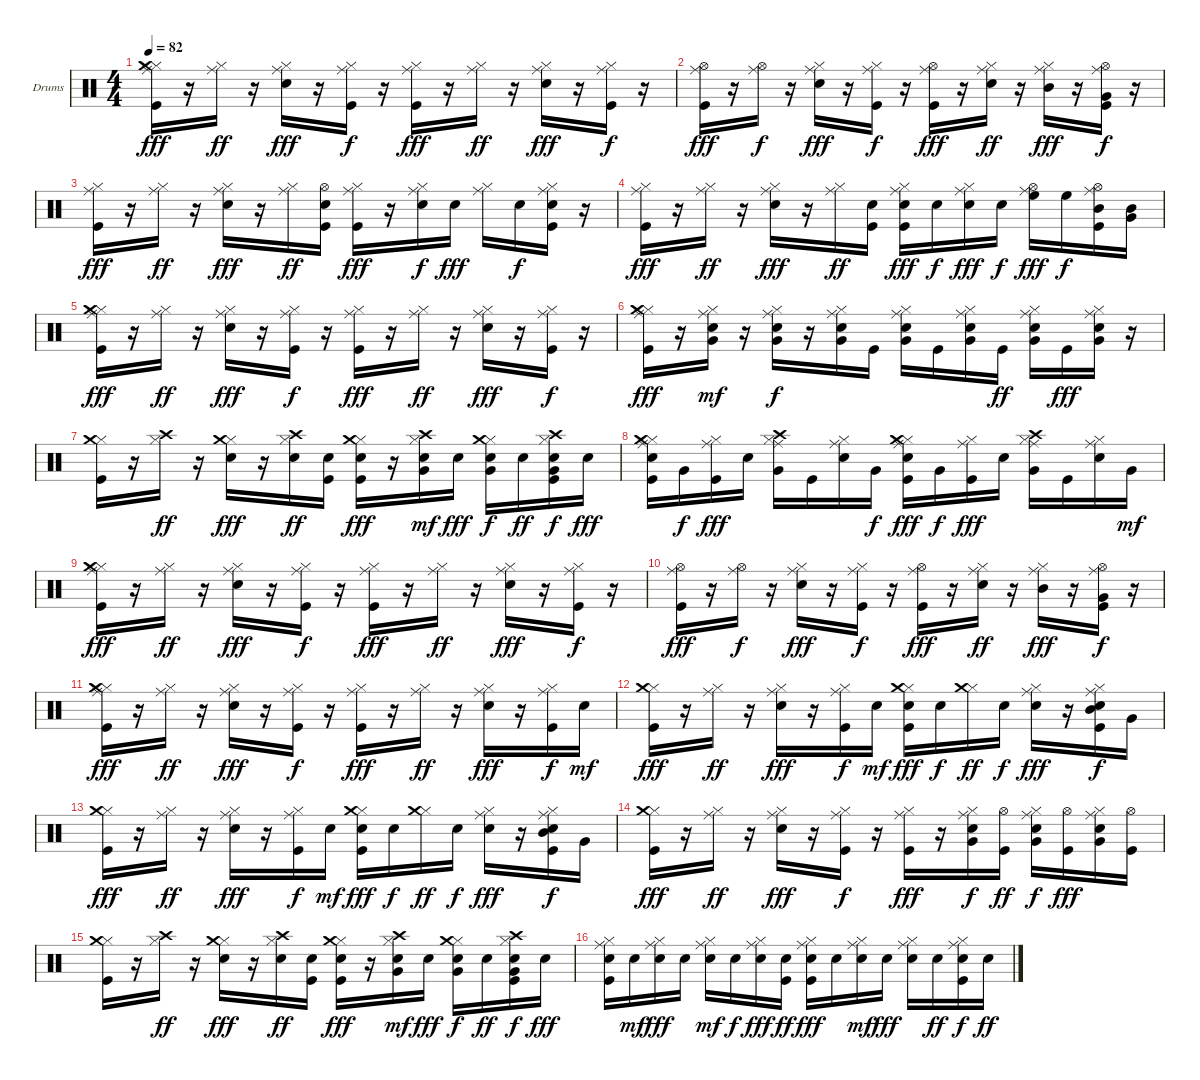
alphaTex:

\bracketExtendMode groupsimilarinstruments
\firstSystemTrackNameOrientation horizontal
\otherSystemsTrackNameOrientation horizontal
\track ("Drumkit" "Drums") {instrument percussion}
\staff {score}
\articulation defaults
\ts (4 4)
\tempo 82
\clef neutral
\ks c
("Kick (hit)" "Hi-Hat (closed)" "Ride (middle)" "Crash medium (hit)").16{dy fff} r.16 ("Hi-Hat (closed)" "Ride (middle)").16{dy ff} r.16 ("Snare (hit) 2" "Hi-Hat (closed)" "Ride (middle)").16{dy fff} r.16 ("Kick (hit)" "Hi-Hat (closed)" "Ride (middle)").16{dy f} r.16 ("Kick (hit)" "Hi-Hat (closed)" "Ride (middle)").16{dy fff} r.16 ("Hi-Hat (closed)" "Ride (middle)").16{dy ff} r.16 ("Snare (hit) 2" "Hi-Hat (closed)" "Ride (middle)").16{dy fff} r.16 ("Kick (hit)" "Hi-Hat (closed)" "Ride (middle)").16{dy f} r.16 |
("Kick (hit)" "Hi-Hat (open)" "Ride (middle)").16{dy fff} r.16 ("Hi-Hat (open)" "Ride (middle)").16{dy f} r.16 ("Snare (hit) 2" "Hi-Hat (closed)" "Ride (middle)").16{dy fff} r.16 ("Kick (hit)" "Hi-Hat (closed)" "Ride (middle)").16{dy f} r.16 ("Kick (hit)" "Hi-Hat (open)" "Ride (middle)").16{dy fff} r.16 ("Snare (hit) 2" "Hi-Hat (closed)" "Ride (middle)").16{dy ff} r.16 ("Hi-Hat (closed)" "Ride (middle)" "Mid Tom (hit)").16{dy fff} r.16 ("Kick (hit)" "Hi-Hat (open)" "Ride (middle)" "Very Low Tom (hit)").16{dy f} r.16 |
("Kick (hit)" "Hi-Hat (closed)" "Ride (middle)").16{dy fff} r.16 ("Hi-Hat (closed)" "Ride (middle)").16{dy ff} r.16 ("Snare (hit) 2" "Hi-Hat (closed)" "Ride (middle)").16{dy fff} r.16 ("Hi-Hat (closed)" "Ride (middle)").16{dy ff} ("Kick (hit)" "Snare (hit) 2" "Hi-Hat (open)").16 ("Kick (hit)" "Hi-Hat (closed)" "Ride (middle)").16{dy fff} r.16 ("Snare (hit) 2" "Hi-Hat (closed)" "Ride (middle)").16{dy f} "Snare (hit) 2".16{dy fff} ("Hi-Hat (closed)" "Ride (middle)").16 "Snare (hit) 2".16{dy f} ("Kick (hit)" "Snare (hit) 2" "Hi-Hat (closed)" "Ride (middle)").16 r.16 |
("Kick (hit)" "Hi-Hat (closed)" "Ride (middle)").16{dy fff} r.16 ("Hi-Hat (closed)" "Ride (middle)").16{dy ff} r.16 ("Snare (hit) 2" "Hi-Hat (closed)" "Ride (middle)").16{dy fff} r.16 ("Hi-Hat (closed)" "Ride (middle)").16{dy ff} ("Kick (hit)" "Snare (hit) 2").16 ("Kick (hit)" "Snare (hit) 2" "Hi-Hat (closed)" "Ride (middle)").16{dy fff} "Snare (hit) 2".16{dy f} ("Snare (hit) 2" "Hi-Hat (closed)" "Ride (middle)").16{dy fff} "Snare (hit) 2".16{dy f} ("Hi-Hat (open)" "Ride (middle)" "High Floor Tom (hit)").16{dy fff} "High Floor Tom (hit)".16{dy f} ("Kick (hit)" "Hi-Hat (open)" "Ride (middle)" "Mid Tom (hit)").16 ("Mid Tom (hit)" "Very Low Tom (hit)").16 |
("Kick (hit)" "Hi-Hat (closed)" "Ride (middle)" "Crash medium (hit)").16{dy fff} r.16 ("Hi-Hat (closed)" "Ride (middle)").16{dy ff} r.16 ("Snare (hit) 2" "Hi-Hat (closed)" "Ride (middle)").16{dy fff} r.16 ("Kick (hit)" "Hi-Hat (closed)" "Ride (middle)").16{dy f} r.16 ("Kick (hit)" "Hi-Hat (closed)" "Ride (middle)").16{dy fff} r.16 ("Hi-Hat (closed)" "Ride (middle)").16{dy ff} r.16 ("Snare (hit) 2" "Hi-Hat (closed)" "Ride (middle)").16{dy fff} r.16 ("Kick (hit)" "Hi-Hat (closed)" "Ride (middle)").16{dy f} r.16 |
("Kick (hit)" "Hi-Hat (closed)" "Ride (middle)" "Crash medium (hit)").16{dy fff} r.16 ("Snare (hit) 2" "Hi-Hat (closed)" "Ride (middle)" "Very Low Tom (hit)").16{dy mf} r.16 ("Snare (hit) 2" "Hi-Hat (closed)" "Ride (middle)" "Very Low Tom (hit)").16{dy f} r.16 ("Snare (hit) 2" "Hi-Hat (closed)" "Ride (middle)" "Very Low Tom (hit)").16 "Kick (hit)".16 ("Snare (hit) 2" "Hi-Hat (closed)" "Ride (middle)" "Very Low Tom (hit)").16 "Kick (hit)".16 ("Snare (hit) 2" "Hi-Hat (closed)" "Ride (middle)" "Very Low Tom (hit)").16 "Kick (hit)".16{dy ff} ("Snare (hit) 2" "Hi-Hat (closed)" "Ride (middle)" "Very Low Tom (hit)").16 "Kick (hit)".16{dy fff} ("Snare (hit) 2" "Hi-Hat (closed)" "Ride (middle)" "Very Low Tom (hit)").16 r.16 |
("Kick (hit)" "Hi-Hat (closed)" "Crash medium (hit)").16 r.16 ("Hi-Hat (closed)" "Crash high (hit)").16{dy ff} r.16 ("Snare (hit) 2" "Hi-Hat (closed)" "Crash medium (hit)").16{dy fff} r.16 ("Hi-Hat (closed)" "Crash high (hit)" "Snare (hit) 2").16{dy ff} ("Kick (hit)" "Snare (hit) 2").16 ("Kick (hit)" "Snare (hit) 2" "Hi-Hat (closed)" "Crash medium (hit)").16{dy fff} r.16 ("Snare (hit) 2" "Hi-Hat (closed)" "Crash high (hit)" "Very Low Tom (hit)").16{dy mf} "Snare (hit) 2".16{dy fff} ("Snare (hit) 2" "Hi-Hat (closed)" "Crash medium (hit)" "Very Low Tom (hit)").16{dy f} "Snare (hit) 2".16{dy ff} ("Kick (hit)" "Snare (hit) 2" "Hi-Hat (closed)" "Crash high (hit)" "Very Low Tom (hit)").16{dy f} "Snare (hit) 2".16{dy fff} |
("Kick (hit)" "Snare (hit) 2" "Hi-Hat (closed)" "Ride (middle)" "Crash medium (hit)").16 "Very Low Tom (hit)".16{dy f} ("Kick (hit)" "Hi-Hat (closed)" "Ride (middle)").16{dy fff} "Snare (hit) 2".16 ("Hi-Hat (closed)" "Ride (middle)" "Crash high (hit)" "Very Low Tom (hit)").16 "Kick (hit)".16 ("Snare (hit) 2" "Hi-Hat (closed)" "Ride (middle)").16 "Very Low Tom (hit)".16{dy f} ("Kick (hit)" "Snare (hit) 2" "Hi-Hat (closed)" "Ride (middle)" "Crash medium (hit)").16{dy fff} "Very Low Tom (hit)".16{dy f} ("Kick (hit)" "Hi-Hat (closed)" "Ride (middle)").16{dy fff} "Snare (hit) 2".16 ("Hi-Hat (closed)" "Ride (middle)" "Crash high (hit)" "Very Low Tom (hit)").16 "Kick (hit)".16 ("Snare (hit) 2" "Hi-Hat (closed)" "Ride (middle)").16 "Very Low Tom (hit)".16{dy mf} |
("Kick (hit)" "Hi-Hat (closed)" "Ride (middle)" "Crash medium (hit)").16{dy fff} r.16 ("Hi-Hat (closed)" "Ride (middle)").16{dy ff} r.16 ("Snare (hit) 2" "Hi-Hat (closed)" "Ride (middle)").16{dy fff} r.16 ("Kick (hit)" "Hi-Hat (closed)" "Ride (middle)").16{dy f} r.16 ("Kick (hit)" "Hi-Hat (closed)" "Ride (middle)").16{dy fff} r.16 ("Hi-Hat (closed)" "Ride (middle)").16{dy ff} r.16 ("Snare (hit) 2" "Hi-Hat (closed)" "Ride (middle)").16{dy fff} r.16 ("Kick (hit)" "Hi-Hat (closed)" "Ride (middle)").16{dy f} r.16 |
("Kick (hit)" "Hi-Hat (open)" "Ride (middle)").16{dy fff} r.16 ("Hi-Hat (open)" "Ride (middle)").16{dy f} r.16 ("Snare (hit) 2" "Hi-Hat (closed)" "Ride (middle)").16{dy fff} r.16 ("Kick (hit)" "Hi-Hat (closed)" "Ride (middle)").16{dy f} r.16 ("Kick (hit)" "Hi-Hat (open)" "Ride (middle)").16{dy fff} r.16 ("Snare (hit) 2" "Hi-Hat (closed)" "Ride (middle)").16{dy ff} r.16 ("Hi-Hat (closed)" "Ride (middle)" "Mid Tom (hit)").16{dy fff} r.16 ("Kick (hit)" "Hi-Hat (open)" "Ride (middle)" "Very Low Tom (hit)").16{dy f} r.16 |
("Kick (hit)" "Hi-Hat (closed)" "Ride (middle)" "Crash medium (hit)").16{dy fff} r.16 ("Hi-Hat (closed)" "Ride (middle)").16{dy ff} r.16 ("Snare (hit) 2" "Hi-Hat (closed)" "Ride (middle)").16{dy fff} r.16 ("Kick (hit)" "Hi-Hat (closed)" "Ride (middle)").16{dy f} r.16 ("Kick (hit)" "Hi-Hat (closed)" "Ride (middle)").16{dy fff} r.16 ("Hi-Hat (closed)" "Ride (middle)").16{dy ff} r.16 ("Snare (hit) 2" "Hi-Hat (closed)" "Ride (middle)").16{dy fff} r.16 ("Kick (hit)" "Hi-Hat (closed)" "Ride (middle)").16{dy f} "Snare (hit) 2".16{dy mf} |
("Kick (hit)" "Hi-Hat (closed)" "Crash medium (hit)").16{dy fff} r.16 ("Hi-Hat (closed)" "Ride (middle)").16{dy ff} r.16 ("Snare (hit) 2" "Hi-Hat (closed)" "Ride (middle)").16{dy fff} r.16 ("Kick (hit)" "Hi-Hat (closed)" "Ride (middle)").16{dy f} "Snare (hit) 2".16{dy mf} ("Kick (hit)" "Snare (hit) 2" "Hi-Hat (closed)" "Crash medium (hit)").16{dy fff} "Snare (hit) 2".16{dy f} ("Hi-Hat (closed)" "Crash medium (hit)").16{dy ff} "Snare (hit) 2".16{dy f} ("Snare (hit) 2" "Hi-Hat (closed)" "Ride (middle)").16{dy fff} r.16 ("Snare (hit) 2" "Kick (hit)" "Hi-Hat (closed)" "Ride (middle)" "Mid Tom (hit)").16{dy f} "Very Low Tom (hit)".16 |
("Kick (hit)" "Hi-Hat (closed)" "Crash medium (hit)").16{dy fff} r.16 ("Hi-Hat (closed)" "Ride (middle)").16{dy ff} r.16 ("Snare (hit) 2" "Hi-Hat (closed)" "Ride (middle)").16{dy fff} r.16 ("Kick (hit)" "Hi-Hat (closed)" "Ride (middle)").16{dy f} "Snare (hit) 2".16{dy mf} ("Kick (hit)" "Snare (hit) 2" "Hi-Hat (closed)" "Crash medium (hit)").16{dy fff} "Snare (hit) 2".16{dy f} ("Hi-Hat (closed)" "Crash medium (hit)").16{dy ff} "Snare (hit) 2".16{dy f} ("Snare (hit) 2" "Hi-Hat (closed)" "Ride (middle)").16{dy fff} r.16 ("Snare (hit) 2" "Kick (hit)" "Hi-Hat (closed)" "Ride (middle)" "Mid Tom (hit)").16{dy f} "Very Low Tom (hit)".16 |
("Kick (hit)" "Hi-Hat (closed)" "Crash medium (hit)").16{dy fff} r.16 ("Hi-Hat (closed)" "Ride (middle)").16{dy ff} r.16 ("Snare (hit) 2" "Hi-Hat (closed)" "Ride (middle)").16{dy fff} r.16 ("Kick (hit)" "Hi-Hat (closed)" "Ride (middle)").16{dy f} r.16 ("Kick (hit)" "Hi-Hat (closed)" "Ride (middle)").16{dy fff} r.16 ("Snare (hit) 2" "Hi-Hat (closed)" "Ride (middle)" "Very Low Tom (hit)").16{dy f} ("Kick (hit)" "Hi-Hat (open)").16{dy ff} ("Snare (hit) 2" "Hi-Hat (closed)" "Ride (middle)" "Very Low Tom (hit)").16{dy f} ("Kick (hit)" "Hi-Hat (open)").16{dy fff} ("Snare (hit) 2" "Hi-Hat (closed)" "Ride (middle)" "Very Low Tom (hit)").16 ("Kick (hit)" "Hi-Hat (open)").16 |
("Kick (hit)" "Hi-Hat (closed)" "Crash medium (hit)").16 r.16 ("Hi-Hat (closed)" "Crash high (hit)").16{dy ff} r.16 ("Snare (hit) 2" "Hi-Hat (closed)" "Crash medium (hit)").16{dy fff} r.16 ("Hi-Hat (closed)" "Crash high (hit)" "Snare (hit) 2").16{dy ff} ("Kick (hit)" "Snare (hit) 2").16 ("Kick (hit)" "Snare (hit) 2" "Hi-Hat (closed)" "Crash medium (hit)").16{dy fff} r.16 ("Snare (hit) 2" "Hi-Hat (closed)" "Crash high (hit)" "Very Low Tom (hit)").16{dy mf} "Snare (hit) 2".16{dy fff} ("Snare (hit) 2" "Hi-Hat (closed)" "Crash medium (hit)" "Very Low Tom (hit)").16{dy f} "Snare (hit) 2".16{dy ff} ("Kick (hit)" "Snare (hit) 2" "Hi-Hat (closed)" "Crash high (hit)" "Very Low Tom (hit)").16{dy f} "Snare (hit) 2".16{dy fff} |
("Kick (hit)" "Snare (hit) 2" "Hi-Hat (closed)" "Ride (middle)").16 "Snare (hit) 2".16{dy mf} ("Snare (hit) 2" "Hi-Hat (closed)" "Ride (middle)").16{dy fff} "Snare (hit) 2".16 ("Snare (hit) 2" "Hi-Hat (closed)" "Ride (middle)").16{dy mf} "Snare (hit) 2".16{dy f} ("Snare (hit) 2" "Hi-Hat (closed)" "Ride (middle)").16{dy fff} ("Kick (hit)" "Snare (hit) 2").16{dy ff} ("Kick (hit)" "Snare (hit) 2" "Hi-Hat (closed)" "Ride (middle)").16{dy fff} "Snare (hit) 2".16 ("Snare (hit) 2" "Hi-Hat (closed)" "Ride (middle)").16{dy mf} "Snare (hit) 2".16{dy fff} ("Snare (hit) 2" "Hi-Hat (closed)" "Ride (middle)").16 "Snare (hit) 2".16{dy ff} ("Kick (hit)" "Snare (hit) 2" "Hi-Hat (closed)" "Ride (middle)").16{dy f} "Snare (hit) 2".16{dy ff}
